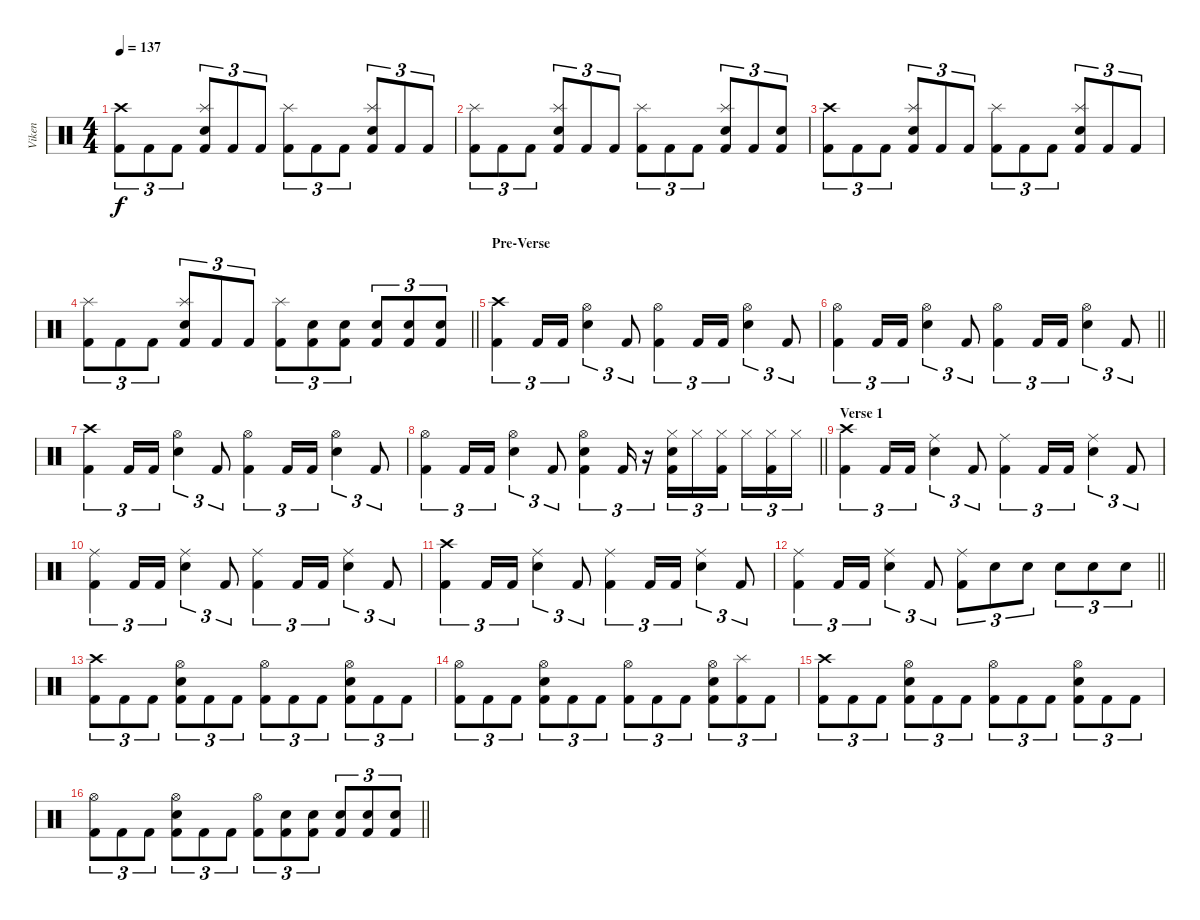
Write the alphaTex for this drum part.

\track ("Viken" "Viken") {instrument percussion}
\staff {score}
\articulation defaults
\ts (4 4)
\tempo 137
\clef neutral
\ks c
("Crash high (hit)" "Kick (hit) 2").8{tu (3 2) dy f} "Kick (hit) 2".8{tu (3 2)} "Kick (hit) 2".8{tu (3 2)} ("Splash (hit)" "Electric Snare (hit)" "Kick (hit) 2").8{tu (3 2)} "Kick (hit) 2".8{tu (3 2)} "Kick (hit) 2".8{tu (3 2)} ("Splash (hit)" "Kick (hit) 2").8{tu (3 2)} "Kick (hit) 2".8{tu (3 2)} "Kick (hit) 2".8{tu (3 2)} ("Splash (hit)" "Electric Snare (hit)" "Kick (hit) 2").8{tu (3 2)} "Kick (hit) 2".8{tu (3 2)} "Kick (hit) 2".8{tu (3 2)} |
("Splash (hit)" "Kick (hit) 2").8{tu (3 2)} "Kick (hit) 2".8{tu (3 2)} "Kick (hit) 2".8{tu (3 2)} ("Splash (hit)" "Electric Snare (hit)" "Kick (hit) 2").8{tu (3 2)} "Kick (hit) 2".8{tu (3 2)} "Kick (hit) 2".8{tu (3 2)} ("Splash (hit)" "Kick (hit) 2").8{tu (3 2)} "Kick (hit) 2".8{tu (3 2)} "Kick (hit) 2".8{tu (3 2)} ("Splash (hit)" "Electric Snare (hit)" "Kick (hit) 2").8{tu (3 2)} "Kick (hit) 2".8{tu (3 2)} ("Electric Snare (hit)" "Kick (hit) 2").8{tu (3 2)} |
("Crash high (hit)" "Kick (hit) 2").8{tu (3 2)} "Kick (hit) 2".8{tu (3 2)} "Kick (hit) 2".8{tu (3 2)} ("Splash (hit)" "Electric Snare (hit)" "Kick (hit) 2").8{tu (3 2)} "Kick (hit) 2".8{tu (3 2)} "Kick (hit) 2".8{tu (3 2)} ("Splash (hit)" "Kick (hit) 2").8{tu (3 2)} "Kick (hit) 2".8{tu (3 2)} "Kick (hit) 2".8{tu (3 2)} ("Splash (hit)" "Electric Snare (hit)" "Kick (hit) 2").8{tu (3 2)} "Kick (hit) 2".8{tu (3 2)} "Kick (hit) 2".8{tu (3 2)} |
\barLineRight lightlight
("Splash (hit)" "Kick (hit) 2").8{tu (3 2)} "Kick (hit) 2".8{tu (3 2)} "Kick (hit) 2".8{tu (3 2)} ("Splash (hit)" "Electric Snare (hit)" "Kick (hit) 2").8{tu (3 2)} "Kick (hit) 2".8{tu (3 2)} "Kick (hit) 2".8{tu (3 2)} ("Splash (hit)" "Kick (hit) 2").8{tu (3 2)} ("Electric Snare (hit)" "Kick (hit) 2").8{tu (3 2)} ("Electric Snare (hit)" "Kick (hit) 2").8{tu (3 2)} ("Electric Snare (hit)" "Kick (hit) 2").8{tu (3 2)} ("Electric Snare (hit)" "Kick (hit) 2").8{tu (3 2)} ("Electric Snare (hit)" "Kick (hit) 2").8{tu (3 2)} |
\section ("" "Pre-Verse")
("Crash high (hit)" "Kick (hit) 2").4{tu (3 2)} "Kick (hit) 2".16{tu (3 2)} "Kick (hit) 2".16{tu (3 2)} ("Hi-Hat (open)" "Electric Snare (hit)").4{tu (3 2)} "Kick (hit) 2".8{tu (3 2)} ("Hi-Hat (open)" "Kick (hit) 2").4{tu (3 2)} "Kick (hit) 2".16{tu (3 2)} "Kick (hit) 2".16{tu (3 2)} ("Hi-Hat (open)" "Electric Snare (hit)").4{tu (3 2)} "Kick (hit) 2".8{tu (3 2)} |
\barLineRight lightlight
("Hi-Hat (open)" "Kick (hit) 2").4{tu (3 2)} "Kick (hit) 2".16{tu (3 2)} "Kick (hit) 2".16{tu (3 2)} ("Hi-Hat (open)" "Electric Snare (hit)").4{tu (3 2)} "Kick (hit) 2".8{tu (3 2)} ("Hi-Hat (open)" "Kick (hit) 2").4{tu (3 2)} "Kick (hit) 2".16{tu (3 2)} "Kick (hit) 2".16{tu (3 2)} ("Hi-Hat (open)" "Electric Snare (hit)").4{tu (3 2)} "Kick (hit) 2".8{tu (3 2)} |
("Crash high (hit)" "Kick (hit) 2").4{tu (3 2)} "Kick (hit) 2".16{tu (3 2)} "Kick (hit) 2".16{tu (3 2)} ("Hi-Hat (open)" "Electric Snare (hit)").4{tu (3 2)} "Kick (hit) 2".8{tu (3 2)} ("Hi-Hat (open)" "Kick (hit) 2").4{tu (3 2)} "Kick (hit) 2".16{tu (3 2)} "Kick (hit) 2".16{tu (3 2)} ("Hi-Hat (open)" "Electric Snare (hit)").4{tu (3 2)} "Kick (hit) 2".8{tu (3 2)} |
\barLineRight lightlight
("Hi-Hat (open)" "Kick (hit) 2").4{tu (3 2)} "Kick (hit) 2".16{tu (3 2)} "Kick (hit) 2".16{tu (3 2)} ("Hi-Hat (open)" "Electric Snare (hit)").4{tu (3 2)} "Kick (hit) 2".8{tu (3 2)} ("Hi-Hat (open)" "Electric Snare (hit)" "Kick (hit) 2").4{tu (3 2)} "Kick (hit) 2".16{tu (3 2)} r.16{tu (3 2)} ("Hi-Hat (closed)" "Electric Snare (hit)" "Kick (hit) 2").16{tu (3 2)} "Hi-Hat (closed)".16{tu (3 2)} ("Hi-Hat (closed)" "Kick (hit) 2").16{tu (3 2)} "Hi-Hat (closed)".16{tu (3 2)} ("Hi-Hat (closed)" "Kick (hit) 2").16{tu (3 2)} "Hi-Hat (closed)".16{tu (3 2)} |
\section ("" "Verse 1")
("Crash high (hit)" "Kick (hit) 2").4{tu (3 2)} "Kick (hit) 2".16{tu (3 2)} "Kick (hit) 2".16{tu (3 2)} ("Ride (middle)" "Electric Snare (hit)").4{tu (3 2)} "Kick (hit) 2".8{tu (3 2)} ("Ride (middle)" "Kick (hit) 2").4{tu (3 2)} "Kick (hit) 2".16{tu (3 2)} "Kick (hit) 2".16{tu (3 2)} ("Ride (middle)" "Electric Snare (hit)").4{tu (3 2)} "Kick (hit) 2".8{tu (3 2)} |
("Ride (middle)" "Kick (hit) 2").4{tu (3 2)} "Kick (hit) 2".16{tu (3 2)} "Kick (hit) 2".16{tu (3 2)} ("Ride (middle)" "Electric Snare (hit)").4{tu (3 2)} "Kick (hit) 2".8{tu (3 2)} ("Ride (middle)" "Kick (hit) 2").4{tu (3 2)} "Kick (hit) 2".16{tu (3 2)} "Kick (hit) 2".16{tu (3 2)} ("Ride (middle)" "Electric Snare (hit)").4{tu (3 2)} "Kick (hit) 2".8{tu (3 2)} |
("Crash high (hit)" "Kick (hit) 2").4{tu (3 2)} "Kick (hit) 2".16{tu (3 2)} "Kick (hit) 2".16{tu (3 2)} ("Ride (middle)" "Electric Snare (hit)").4{tu (3 2)} "Kick (hit) 2".8{tu (3 2)} ("Ride (middle)" "Kick (hit) 2").4{tu (3 2)} "Kick (hit) 2".16{tu (3 2)} "Kick (hit) 2".16{tu (3 2)} ("Ride (middle)" "Electric Snare (hit)").4{tu (3 2)} "Kick (hit) 2".8{tu (3 2)} |
\barLineRight lightlight
("Ride (middle)" "Kick (hit) 2").4{tu (3 2)} "Kick (hit) 2".16{tu (3 2)} "Kick (hit) 2".16{tu (3 2)} ("Ride (middle)" "Electric Snare (hit)").4{tu (3 2)} "Kick (hit) 2".8{tu (3 2)} ("Ride (middle)" "Kick (hit) 2").8{tu (3 2)} "Electric Snare (hit)".8{tu (3 2)} "Electric Snare (hit)".8{tu (3 2)} "Electric Snare (hit)".8{tu (3 2)} "Electric Snare (hit)".8{tu (3 2)} "Electric Snare (hit)".8{tu (3 2)} |
\section ("" "")
("Crash high (hit)" "Kick (hit) 2").8{tu (3 2)} "Kick (hit) 2".8{tu (3 2)} "Kick (hit) 2".8{tu (3 2)} ("Hi-Hat (open)" "Electric Snare (hit)" "Kick (hit) 2").8{tu (3 2)} "Kick (hit) 2".8{tu (3 2)} "Kick (hit) 2".8{tu (3 2)} ("Hi-Hat (open)" "Kick (hit) 2").8{tu (3 2)} "Kick (hit) 2".8{tu (3 2)} "Kick (hit) 2".8{tu (3 2)} ("Hi-Hat (open)" "Electric Snare (hit)" "Kick (hit) 2").8{tu (3 2)} "Kick (hit) 2".8{tu (3 2)} "Kick (hit) 2".8{tu (3 2)} |
("Hi-Hat (open)" "Kick (hit) 2").8{tu (3 2)} "Kick (hit) 2".8{tu (3 2)} "Kick (hit) 2".8{tu (3 2)} ("Hi-Hat (open)" "Electric Snare (hit)" "Kick (hit) 2").8{tu (3 2)} "Kick (hit) 2".8{tu (3 2)} "Kick (hit) 2".8{tu (3 2)} ("Hi-Hat (open)" "Kick (hit) 2").8{tu (3 2)} "Kick (hit) 2".8{tu (3 2)} "Kick (hit) 2".8{tu (3 2)} ("Hi-Hat (open)" "Electric Snare (hit)" "Kick (hit) 2").8{tu (3 2)} ("Splash (hit)" "Kick (hit) 2").8{tu (3 2)} "Kick (hit) 2".8{tu (3 2)} |
("Crash high (hit)" "Kick (hit) 2").8{tu (3 2)} "Kick (hit) 2".8{tu (3 2)} "Kick (hit) 2".8{tu (3 2)} ("Hi-Hat (open)" "Electric Snare (hit)" "Kick (hit) 2").8{tu (3 2)} "Kick (hit) 2".8{tu (3 2)} "Kick (hit) 2".8{tu (3 2)} ("Hi-Hat (open)" "Kick (hit) 2").8{tu (3 2)} "Kick (hit) 2".8{tu (3 2)} "Kick (hit) 2".8{tu (3 2)} ("Hi-Hat (open)" "Electric Snare (hit)" "Kick (hit) 2").8{tu (3 2)} "Kick (hit) 2".8{tu (3 2)} "Kick (hit) 2".8{tu (3 2)} |
\barLineRight lightlight
("Hi-Hat (open)" "Kick (hit) 2").8{tu (3 2)} "Kick (hit) 2".8{tu (3 2)} "Kick (hit) 2".8{tu (3 2)} ("Hi-Hat (open)" "Electric Snare (hit)" "Kick (hit) 2").8{tu (3 2)} "Kick (hit) 2".8{tu (3 2)} "Kick (hit) 2".8{tu (3 2)} ("Hi-Hat (open)" "Kick (hit) 2").8{tu (3 2)} ("Electric Snare (hit)" "Kick (hit) 2").8{tu (3 2)} ("Electric Snare (hit)" "Kick (hit) 2").8{tu (3 2)} ("Electric Snare (hit)" "Kick (hit) 2").8{tu (3 2)} ("Electric Snare (hit)" "Kick (hit) 2").8{tu (3 2)} ("Electric Snare (hit)" "Kick (hit) 2").8{tu (3 2)}
